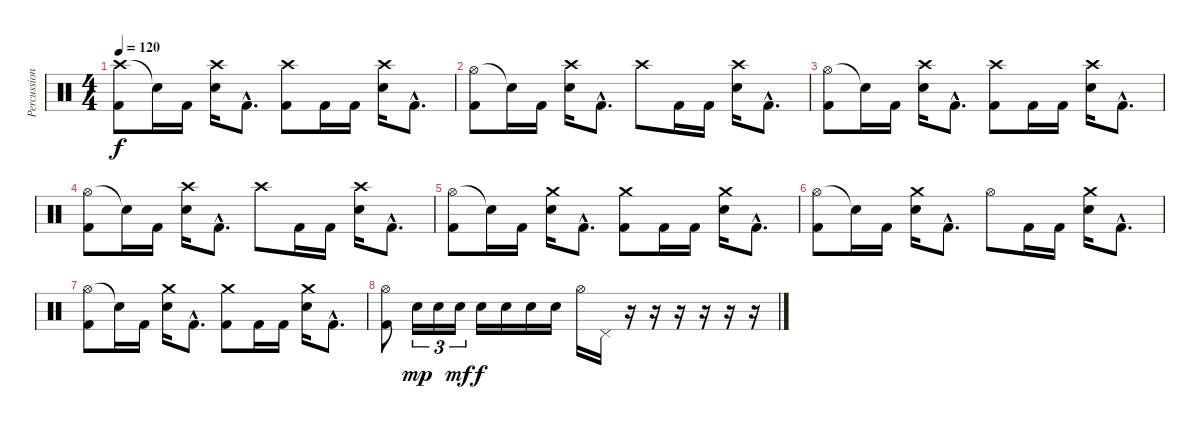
\track ("Percussion" "Percussion") {instrument percussion}
\staff {score}
\articulation defaults
\ts (4 4)
\tempo 120
\clef neutral
\ks c
("Crash high (hit)" "Kick (hit) 2").8{dy f} "Snare (hit)"{t}.16 "Kick (hit) 2".16 ("Crash high (hit)" "Snare (hit) 2").16 "Kick (hit) 2"{hac}.8{d} ("Crash high (hit)" "Kick (hit) 2").8 "Kick (hit) 2".16 "Kick (hit) 2".16 ("Crash high (hit)" "Snare (hit) 2").16 "Kick (hit) 2"{hac}.8{d} |
("Hi-Hat (open)" "Kick (hit) 2").8 "Snare (hit)"{t}.16 "Kick (hit) 2".16 ("Crash high (hit)" "Snare (hit) 2").16 "Kick (hit) 2"{hac}.8{d} "Crash high (hit)".8 "Kick (hit) 2".16 "Kick (hit) 2".16 ("Crash high (hit)" "Snare (hit) 2").16 "Kick (hit) 2"{hac}.8{d} |
("Hi-Hat (open)" "Kick (hit) 2").8 "Snare (hit)"{t}.16 "Kick (hit) 2".16 ("Crash high (hit)" "Snare (hit) 2").16 "Kick (hit) 2"{hac}.8{d} ("Crash high (hit)" "Kick (hit) 2").8 "Kick (hit) 2".16 "Kick (hit) 2".16 ("Crash high (hit)" "Snare (hit) 2").16 "Kick (hit) 2"{hac}.8{d} |
("Hi-Hat (open)" "Kick (hit) 2").8 "Snare (hit)"{t}.16 "Kick (hit) 2".16 ("Crash high (hit)" "Snare (hit) 2").16 "Kick (hit) 2"{hac}.8{d} "Crash high (hit)".8 "Kick (hit) 2".16 "Kick (hit) 2".16 ("Crash high (hit)" "Snare (hit) 2").16 "Kick (hit) 2"{hac}.8{d} |
("Hi-Hat (open)" "Kick (hit) 2").8 "Snare (hit)"{t}.16 "Kick (hit) 2".16 ("Crash medium (hit)" "Snare (hit) 2").16 "Kick (hit) 2"{hac}.8{d} ("Crash medium (hit)" "Kick (hit) 2").8 "Kick (hit) 2".16 "Kick (hit) 2".16 ("Crash medium (hit)" "Snare (hit) 2").16 "Kick (hit) 2"{hac}.8{d} |
("Hi-Hat (open)" "Kick (hit) 2").8 "Snare (hit)"{t}.16 "Kick (hit) 2".16 ("Crash medium (hit)" "Snare (hit) 2").16 "Kick (hit) 2"{hac}.8{d} "Hi-Hat (open)".8 "Kick (hit) 2".16 "Kick (hit) 2".16 ("Crash medium (hit)" "Snare (hit) 2").16 "Kick (hit) 2"{hac}.8{d} |
("Hi-Hat (open)" "Kick (hit) 2").8 "Snare (hit)"{t}.16 "Kick (hit) 2".16 ("Crash medium (hit)" "Snare (hit) 2").16 "Kick (hit) 2"{hac}.8{d} ("Crash medium (hit)" "Kick (hit) 2").8 "Kick (hit) 2".16 "Kick (hit) 2".16 ("Crash medium (hit)" "Snare (hit) 2").16 "Kick (hit) 2"{hac}.8{d} |
("Hi-Hat (open)" "Kick (hit) 2").8 "Snare (hit) 2".16{tu (3 2) dy mp} "Snare (hit) 2".16{tu (3 2)} "Snare (hit) 2".16{tu (3 2) dy mf} "Snare (hit) 2".16{dy f} "Snare (hit) 2".16 "Snare (hit) 2".16 "Snare (hit) 2".16 "Hi-Hat (open)".16 "Pedal Hi-Hat (hit)".16 r.16 r.16 r.16 r.16 r.16 r.16
